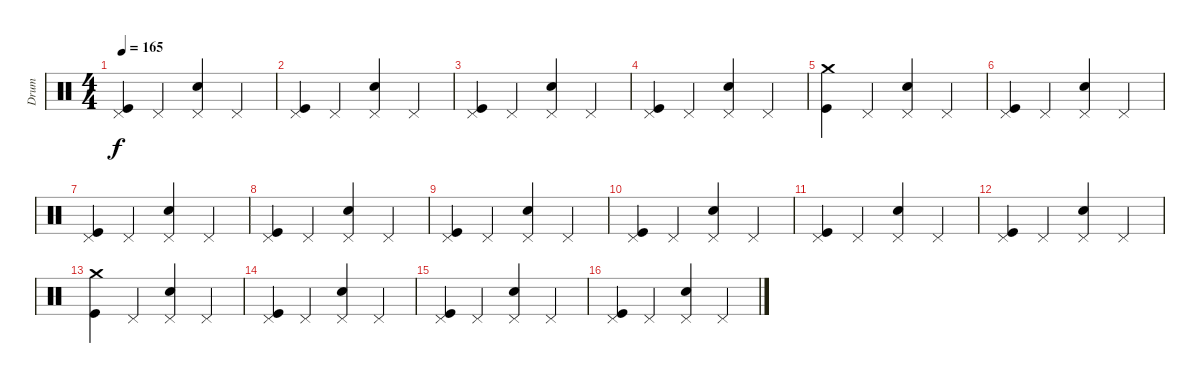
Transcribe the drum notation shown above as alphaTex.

\track ("Drum" "Drum") {instrument percussion}
\staff {score}
\articulation defaults
\ts (4 4)
\tempo 165
\clef neutral
\ks c
("Pedal Hi-Hat (hit)" "Kick (hit)").4{dy f} "Pedal Hi-Hat (hit)".4 ("Pedal Hi-Hat (hit)" "Electric Snare (hit)").4 "Pedal Hi-Hat (hit)".4 |
("Pedal Hi-Hat (hit)" "Kick (hit)").4 "Pedal Hi-Hat (hit)".4 ("Pedal Hi-Hat (hit)" "Electric Snare (hit)").4 "Pedal Hi-Hat (hit)".4 |
("Pedal Hi-Hat (hit)" "Kick (hit)").4 "Pedal Hi-Hat (hit)".4 ("Pedal Hi-Hat (hit)" "Electric Snare (hit)").4 "Pedal Hi-Hat (hit)".4 |
("Pedal Hi-Hat (hit)" "Kick (hit)").4 "Pedal Hi-Hat (hit)".4 ("Pedal Hi-Hat (hit)" "Electric Snare (hit)").4 "Pedal Hi-Hat (hit)".4 |
("Crash medium (hit)" "Kick (hit)").4 "Pedal Hi-Hat (hit)".4 ("Pedal Hi-Hat (hit)" "Electric Snare (hit)").4 "Pedal Hi-Hat (hit)".4 |
("Pedal Hi-Hat (hit)" "Kick (hit)").4 "Pedal Hi-Hat (hit)".4 ("Pedal Hi-Hat (hit)" "Electric Snare (hit)").4 "Pedal Hi-Hat (hit)".4 |
("Pedal Hi-Hat (hit)" "Kick (hit)").4 "Pedal Hi-Hat (hit)".4 ("Pedal Hi-Hat (hit)" "Electric Snare (hit)").4 "Pedal Hi-Hat (hit)".4 |
("Pedal Hi-Hat (hit)" "Kick (hit)").4 "Pedal Hi-Hat (hit)".4 ("Pedal Hi-Hat (hit)" "Electric Snare (hit)").4 "Pedal Hi-Hat (hit)".4 |
("Pedal Hi-Hat (hit)" "Kick (hit)").4 "Pedal Hi-Hat (hit)".4 ("Pedal Hi-Hat (hit)" "Electric Snare (hit)").4 "Pedal Hi-Hat (hit)".4 |
("Pedal Hi-Hat (hit)" "Kick (hit)").4 "Pedal Hi-Hat (hit)".4 ("Pedal Hi-Hat (hit)" "Electric Snare (hit)").4 "Pedal Hi-Hat (hit)".4 |
("Pedal Hi-Hat (hit)" "Kick (hit)").4 "Pedal Hi-Hat (hit)".4 ("Pedal Hi-Hat (hit)" "Electric Snare (hit)").4 "Pedal Hi-Hat (hit)".4 |
("Pedal Hi-Hat (hit)" "Kick (hit)").4 "Pedal Hi-Hat (hit)".4 ("Pedal Hi-Hat (hit)" "Electric Snare (hit)").4 "Pedal Hi-Hat (hit)".4 |
("Crash medium (hit)" "Kick (hit)").4 "Pedal Hi-Hat (hit)".4 ("Pedal Hi-Hat (hit)" "Electric Snare (hit)").4 "Pedal Hi-Hat (hit)".4 |
("Pedal Hi-Hat (hit)" "Kick (hit)").4 "Pedal Hi-Hat (hit)".4 ("Pedal Hi-Hat (hit)" "Electric Snare (hit)").4 "Pedal Hi-Hat (hit)".4 |
("Pedal Hi-Hat (hit)" "Kick (hit)").4 "Pedal Hi-Hat (hit)".4 ("Pedal Hi-Hat (hit)" "Electric Snare (hit)").4 "Pedal Hi-Hat (hit)".4 |
("Pedal Hi-Hat (hit)" "Kick (hit)").4 "Pedal Hi-Hat (hit)".4 ("Pedal Hi-Hat (hit)" "Electric Snare (hit)").4 "Pedal Hi-Hat (hit)".4
